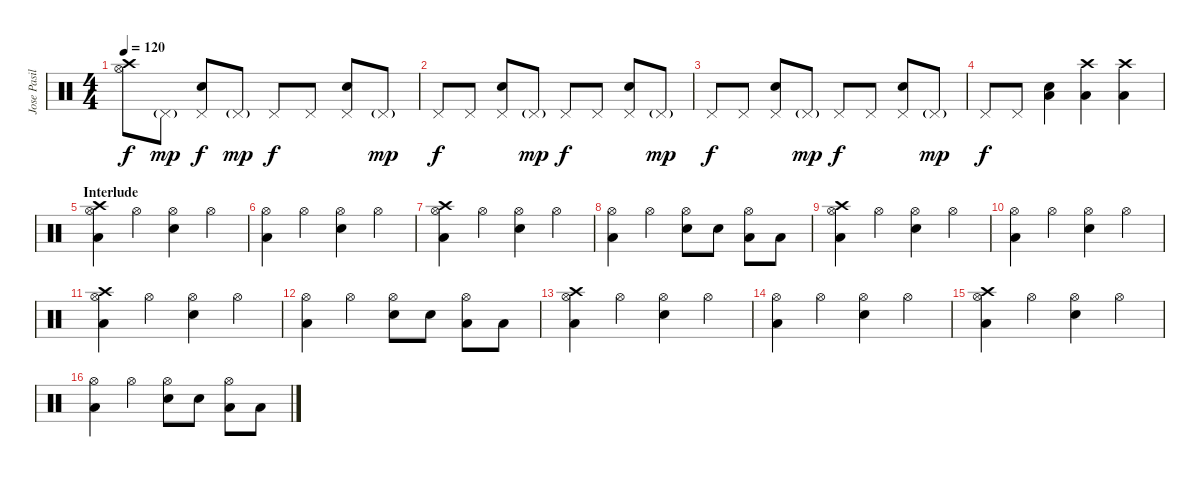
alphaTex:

\track ("Jose Pasillas II" "Jose Pasil") {instrument percussion}
\staff {score}
\articulation defaults
\ts (4 4)
\tempo 120
\clef neutral
\ks c
("Crash high (hit)" "Hi-Hat (open)").8{dy f} "Pedal Hi-Hat (hit)"{g}.8{dy mp} ("Pedal Hi-Hat (hit)" "Electric Snare (hit)").8{dy f} "Pedal Hi-Hat (hit)"{g}.8{dy mp} "Pedal Hi-Hat (hit)".8{dy f} "Pedal Hi-Hat (hit)".8 ("Pedal Hi-Hat (hit)" "Electric Snare (hit)").8 "Pedal Hi-Hat (hit)"{g}.8{dy mp} |
"Pedal Hi-Hat (hit)".8{dy f} "Pedal Hi-Hat (hit)".8 ("Pedal Hi-Hat (hit)" "Electric Snare (hit)").8 "Pedal Hi-Hat (hit)"{g}.8{dy mp} "Pedal Hi-Hat (hit)".8{dy f} "Pedal Hi-Hat (hit)".8 ("Pedal Hi-Hat (hit)" "Electric Snare (hit)").8 "Pedal Hi-Hat (hit)"{g}.8{dy mp} |
"Pedal Hi-Hat (hit)".8{dy f} "Pedal Hi-Hat (hit)".8 ("Pedal Hi-Hat (hit)" "Electric Snare (hit)").8 "Pedal Hi-Hat (hit)"{g}.8{dy mp} "Pedal Hi-Hat (hit)".8{dy f} "Pedal Hi-Hat (hit)".8 ("Pedal Hi-Hat (hit)" "Electric Snare (hit)").8 "Pedal Hi-Hat (hit)"{g}.8{dy mp} |
"Pedal Hi-Hat (hit)".8{dy f} "Pedal Hi-Hat (hit)".8 ("Electric Snare (hit)" "Low Tom (hit)").4 ("Crash high (hit)" "Low Tom (hit)").4 ("Crash high (hit)" "Low Tom (hit)").4 |
\section ("" "Interlude")
("Crash high (hit)" "Hi-Hat (open)" "Low Tom (hit)").4 "Hi-Hat (open)".4 ("Hi-Hat (open)" "Electric Snare (hit)").4 "Hi-Hat (open)".4 |
("Hi-Hat (open)" "Low Tom (hit)").4 "Hi-Hat (open)".4 ("Hi-Hat (open)" "Electric Snare (hit)").4 "Hi-Hat (open)".4 |
("Crash high (hit)" "Hi-Hat (open)" "Low Tom (hit)").4 "Hi-Hat (open)".4 ("Hi-Hat (open)" "Electric Snare (hit)").4 "Hi-Hat (open)".4 |
("Hi-Hat (open)" "Low Tom (hit)").4 "Hi-Hat (open)".4 ("Hi-Hat (open)" "Electric Snare (hit)").8 "Electric Snare (hit)".8 ("Hi-Hat (open)" "Low Tom (hit)").8 "Low Tom (hit)".8 |
("Crash high (hit)" "Hi-Hat (open)" "Low Tom (hit)").4 "Hi-Hat (open)".4 ("Hi-Hat (open)" "Electric Snare (hit)").4 "Hi-Hat (open)".4 |
("Hi-Hat (open)" "Low Tom (hit)").4 "Hi-Hat (open)".4 ("Hi-Hat (open)" "Electric Snare (hit)").4 "Hi-Hat (open)".4 |
("Crash high (hit)" "Hi-Hat (open)" "Low Tom (hit)").4 "Hi-Hat (open)".4 ("Hi-Hat (open)" "Electric Snare (hit)").4 "Hi-Hat (open)".4 |
("Hi-Hat (open)" "Low Tom (hit)").4 "Hi-Hat (open)".4 ("Hi-Hat (open)" "Electric Snare (hit)").8 "Electric Snare (hit)".8 ("Hi-Hat (open)" "Low Tom (hit)").8 "Low Tom (hit)".8 |
("Crash high (hit)" "Hi-Hat (open)" "Low Tom (hit)").4 "Hi-Hat (open)".4 ("Hi-Hat (open)" "Electric Snare (hit)").4 "Hi-Hat (open)".4 |
("Hi-Hat (open)" "Low Tom (hit)").4 "Hi-Hat (open)".4 ("Hi-Hat (open)" "Electric Snare (hit)").4 "Hi-Hat (open)".4 |
("Crash high (hit)" "Hi-Hat (open)" "Low Tom (hit)").4 "Hi-Hat (open)".4 ("Hi-Hat (open)" "Electric Snare (hit)").4 "Hi-Hat (open)".4 |
("Hi-Hat (open)" "Low Tom (hit)").4 "Hi-Hat (open)".4 ("Hi-Hat (open)" "Electric Snare (hit)").8 "Electric Snare (hit)".8 ("Hi-Hat (open)" "Low Tom (hit)").8 "Low Tom (hit)".8
